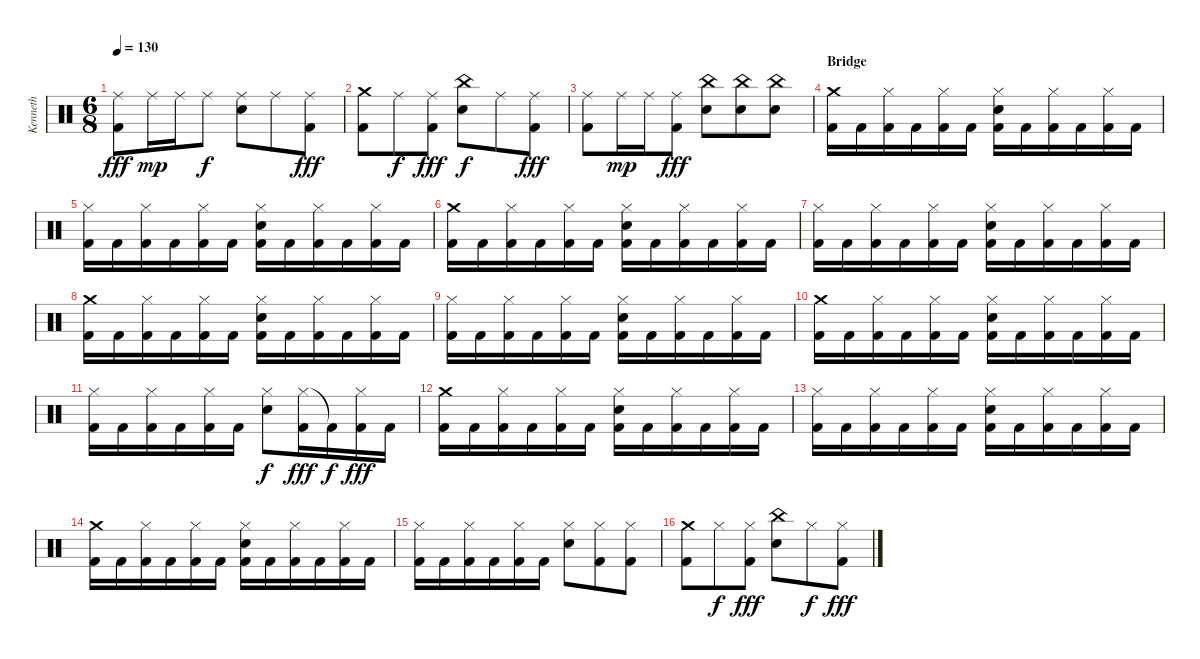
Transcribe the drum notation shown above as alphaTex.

\track ("Kenneth" "Kenneth") {instrument percussion}
\staff {score}
\articulation defaults
\ts (6 8)
\tempo 130
\clef neutral
\ks c
("Ride (middle)" "Kick (hit) 2").8{dy fff} "Ride (middle)".16{dy mp} "Ride (middle)".16 "Ride (middle)".8{dy f} ("Ride (middle)" "Electric Snare (hit)").8 "Ride (middle)".8 ("Ride (middle)" "Kick (hit) 2").8{dy fff} |
("Crash medium (hit)" "Kick (hit) 2").8 "Ride (middle)".8{dy f} ("Ride (middle)" "Kick (hit) 2").8{dy fff} ("China (hit)" "Electric Snare (hit)").8{dy f} "Ride (middle)".8 ("Ride (middle)" "Kick (hit) 2").8{dy fff} |
("Ride (middle)" "Kick (hit) 2").8 "Ride (middle)".16{dy mp} "Ride (middle)".16 ("Ride (middle)" "Kick (hit) 2").8{dy fff} ("China (hit)" "Electric Snare (hit)").8 ("China (hit)" "Electric Snare (hit)").8 ("China (hit)" "Electric Snare (hit)").8 |
\section ("" "Bridge")
("Crash medium (hit)" "Kick (hit) 2").16 "Kick (hit) 2".16 ("Hi-Hat (closed)" "Kick (hit) 2").16 "Kick (hit) 2".16 ("Hi-Hat (closed)" "Kick (hit) 2").16 "Kick (hit) 2".16 ("Hi-Hat (closed)" "Electric Snare (hit)" "Kick (hit) 2").16 "Kick (hit) 2".16 ("Hi-Hat (closed)" "Kick (hit) 2").16 "Kick (hit) 2".16 ("Hi-Hat (closed)" "Kick (hit) 2").16 "Kick (hit) 2".16 |
("Hi-Hat (closed)" "Kick (hit) 2").16 "Kick (hit) 2".16 ("Hi-Hat (closed)" "Kick (hit) 2").16 "Kick (hit) 2".16 ("Hi-Hat (closed)" "Kick (hit) 2").16 "Kick (hit) 2".16 ("Hi-Hat (closed)" "Electric Snare (hit)" "Kick (hit) 2").16 "Kick (hit) 2".16 ("Hi-Hat (closed)" "Kick (hit) 2").16 "Kick (hit) 2".16 ("Hi-Hat (closed)" "Kick (hit) 2").16 "Kick (hit) 2".16 |
("Crash medium (hit)" "Kick (hit) 2").16 "Kick (hit) 2".16 ("Hi-Hat (closed)" "Kick (hit) 2").16 "Kick (hit) 2".16 ("Hi-Hat (closed)" "Kick (hit) 2").16 "Kick (hit) 2".16 ("Hi-Hat (closed)" "Electric Snare (hit)" "Kick (hit) 2").16 "Kick (hit) 2".16 ("Hi-Hat (closed)" "Kick (hit) 2").16 "Kick (hit) 2".16 ("Hi-Hat (closed)" "Kick (hit) 2").16 "Kick (hit) 2".16 |
("Hi-Hat (closed)" "Kick (hit) 2").16 "Kick (hit) 2".16 ("Hi-Hat (closed)" "Kick (hit) 2").16 "Kick (hit) 2".16 ("Hi-Hat (closed)" "Kick (hit) 2").16 "Kick (hit) 2".16 ("Hi-Hat (closed)" "Electric Snare (hit)" "Kick (hit) 2").16 "Kick (hit) 2".16 ("Hi-Hat (closed)" "Kick (hit) 2").16 "Kick (hit) 2".16 ("Hi-Hat (closed)" "Kick (hit) 2").16 "Kick (hit) 2".16 |
("Crash medium (hit)" "Kick (hit) 2").16 "Kick (hit) 2".16 ("Hi-Hat (closed)" "Kick (hit) 2").16 "Kick (hit) 2".16 ("Hi-Hat (closed)" "Kick (hit) 2").16 "Kick (hit) 2".16 ("Hi-Hat (closed)" "Electric Snare (hit)" "Kick (hit) 2").16 "Kick (hit) 2".16 ("Hi-Hat (closed)" "Kick (hit) 2").16 "Kick (hit) 2".16 ("Hi-Hat (closed)" "Kick (hit) 2").16 "Kick (hit) 2".16 |
("Hi-Hat (closed)" "Kick (hit) 2").16 "Kick (hit) 2".16 ("Hi-Hat (closed)" "Kick (hit) 2").16 "Kick (hit) 2".16 ("Hi-Hat (closed)" "Kick (hit) 2").16 "Kick (hit) 2".16 ("Hi-Hat (closed)" "Electric Snare (hit)" "Kick (hit) 2").16 "Kick (hit) 2".16 ("Hi-Hat (closed)" "Kick (hit) 2").16 "Kick (hit) 2".16 ("Hi-Hat (closed)" "Kick (hit) 2").16 "Kick (hit) 2".16 |
("Crash medium (hit)" "Kick (hit) 2").16 "Kick (hit) 2".16 ("Hi-Hat (closed)" "Kick (hit) 2").16 "Kick (hit) 2".16 ("Hi-Hat (closed)" "Kick (hit) 2").16 "Kick (hit) 2".16 ("Hi-Hat (closed)" "Electric Snare (hit)" "Kick (hit) 2").16 "Kick (hit) 2".16 ("Hi-Hat (closed)" "Kick (hit) 2").16 "Kick (hit) 2".16 ("Hi-Hat (closed)" "Kick (hit) 2").16 "Kick (hit) 2".16 |
("Hi-Hat (closed)" "Kick (hit) 2").16 "Kick (hit) 2".16 ("Hi-Hat (closed)" "Kick (hit) 2").16 "Kick (hit) 2".16 ("Hi-Hat (closed)" "Kick (hit) 2").16 "Kick (hit) 2".16 ("Hi-Hat (closed)" "Electric Snare (hit)").8{dy f} ("Hi-Hat (closed)" "Kick (hit) 2").16{dy fff} "Kick (hit) 2"{t}.16{dy f} ("Hi-Hat (closed)" "Kick (hit) 2").16{dy fff} "Kick (hit) 2".16 |
("Crash medium (hit)" "Kick (hit) 2").16 "Kick (hit) 2".16 ("Hi-Hat (closed)" "Kick (hit) 2").16 "Kick (hit) 2".16 ("Hi-Hat (closed)" "Kick (hit) 2").16 "Kick (hit) 2".16 ("Hi-Hat (closed)" "Electric Snare (hit)" "Kick (hit) 2").16 "Kick (hit) 2".16 ("Hi-Hat (closed)" "Kick (hit) 2").16 "Kick (hit) 2".16 ("Hi-Hat (closed)" "Kick (hit) 2").16 "Kick (hit) 2".16 |
("Hi-Hat (closed)" "Kick (hit) 2").16 "Kick (hit) 2".16 ("Hi-Hat (closed)" "Kick (hit) 2").16 "Kick (hit) 2".16 ("Hi-Hat (closed)" "Kick (hit) 2").16 "Kick (hit) 2".16 ("Hi-Hat (closed)" "Electric Snare (hit)" "Kick (hit) 2").16 "Kick (hit) 2".16 ("Hi-Hat (closed)" "Kick (hit) 2").16 "Kick (hit) 2".16 ("Hi-Hat (closed)" "Kick (hit) 2").16 "Kick (hit) 2".16 |
("Crash medium (hit)" "Kick (hit) 2").16 "Kick (hit) 2".16 ("Hi-Hat (closed)" "Kick (hit) 2").16 "Kick (hit) 2".16 ("Hi-Hat (closed)" "Kick (hit) 2").16 "Kick (hit) 2".16 ("Hi-Hat (closed)" "Electric Snare (hit)" "Kick (hit) 2").16 "Kick (hit) 2".16 ("Hi-Hat (closed)" "Kick (hit) 2").16 "Kick (hit) 2".16 ("Hi-Hat (closed)" "Kick (hit) 2").16 "Kick (hit) 2".16 |
("Hi-Hat (closed)" "Kick (hit) 2").16 "Kick (hit) 2".16 ("Hi-Hat (closed)" "Kick (hit) 2").16 "Kick (hit) 2".16 ("Hi-Hat (closed)" "Kick (hit) 2").16 "Kick (hit) 2".16 ("Hi-Hat (closed)" "Electric Snare (hit)").8 ("Hi-Hat (closed)" "Kick (hit) 2").8 ("Hi-Hat (closed)" "Kick (hit) 2").8 |
("Crash medium (hit)" "Kick (hit) 2").8 "Hi-Hat (closed)".8{dy f} ("Hi-Hat (closed)" "Kick (hit) 2").8{dy fff} ("China (hit)" "Electric Snare (hit)").8 "Hi-Hat (closed)".8{dy f} ("Hi-Hat (closed)" "Kick (hit) 2").8{dy fff}
